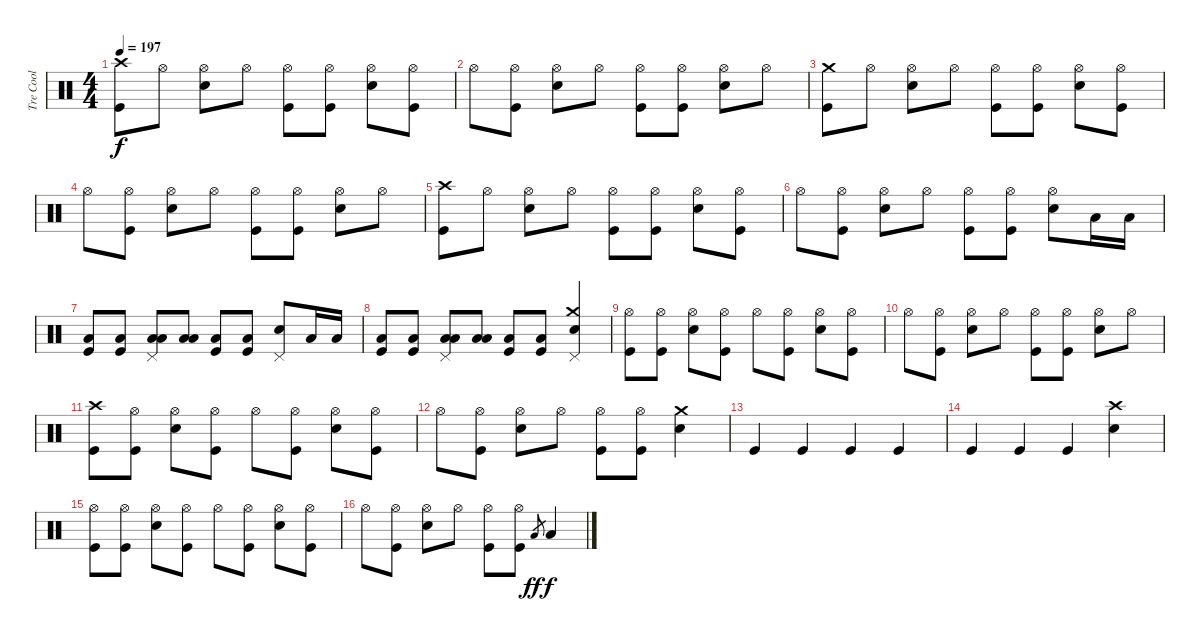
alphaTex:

\track ("Tre Cool" "Tre Cool") {instrument percussion}
\staff {score}
\articulation defaults
\ts (4 4)
\tempo 197
\clef neutral
\ks c
("Crash high (hit)" "Kick (hit)").8{dy f} "Hi-Hat (open)".8 ("Hi-Hat (open)" "Electric Snare (hit)").8 "Hi-Hat (open)".8 ("Hi-Hat (open)" "Kick (hit)").8 ("Hi-Hat (open)" "Kick (hit)").8 ("Hi-Hat (open)" "Electric Snare (hit)").8 ("Hi-Hat (open)" "Kick (hit)").8 |
"Hi-Hat (open)".8 ("Hi-Hat (open)" "Kick (hit)").8 ("Hi-Hat (open)" "Electric Snare (hit)").8 "Hi-Hat (open)".8 ("Hi-Hat (open)" "Kick (hit)").8 ("Hi-Hat (open)" "Kick (hit)").8 ("Hi-Hat (open)" "Electric Snare (hit)").8 "Hi-Hat (open)".8 |
("Crash medium (hit)" "Kick (hit)").8 "Hi-Hat (open)".8 ("Hi-Hat (open)" "Electric Snare (hit)").8 "Hi-Hat (open)".8 ("Hi-Hat (open)" "Kick (hit)").8 ("Hi-Hat (open)" "Kick (hit)").8 ("Hi-Hat (open)" "Electric Snare (hit)").8 ("Hi-Hat (open)" "Kick (hit)").8 |
"Hi-Hat (open)".8 ("Hi-Hat (open)" "Kick (hit)").8 ("Hi-Hat (open)" "Electric Snare (hit)").8 "Hi-Hat (open)".8 ("Hi-Hat (open)" "Kick (hit)").8 ("Hi-Hat (open)" "Kick (hit)").8 ("Hi-Hat (open)" "Electric Snare (hit)").8 "Hi-Hat (open)".8 |
("Crash high (hit)" "Kick (hit)").8 "Hi-Hat (open)".8 ("Hi-Hat (open)" "Electric Snare (hit)").8 "Hi-Hat (open)".8 ("Hi-Hat (open)" "Kick (hit)").8 ("Hi-Hat (open)" "Kick (hit)").8 ("Hi-Hat (open)" "Electric Snare (hit)").8 ("Hi-Hat (open)" "Kick (hit)").8 |
"Hi-Hat (open)".8 ("Hi-Hat (open)" "Kick (hit)").8 ("Hi-Hat (open)" "Electric Snare (hit)").8 "Hi-Hat (open)".8 ("Hi-Hat (open)" "Kick (hit)").8 ("Hi-Hat (open)" "Kick (hit)").8 ("Hi-Hat (open)" "Electric Snare (hit)").8 "Low Floor Tom (hit)".16 "Low Floor Tom (hit)".16 |
("Low Floor Tom (hit)" "Kick (hit)").8 ("Low Floor Tom (hit)" "Kick (hit)").8 ("Low Tom (hit)" "Low Floor Tom (hit)" "Pedal Hi-Hat (hit)").8 ("Low Tom (hit)" "Low Floor Tom (hit)").8 ("Low Floor Tom (hit)" "Kick (hit)").8 ("Low Floor Tom (hit)" "Kick (hit)").8 ("Electric Snare (hit)" "Pedal Hi-Hat (hit)").8 "Low Floor Tom (hit)".16 "Low Floor Tom (hit)".16 |
("Low Floor Tom (hit)" "Kick (hit)").8 ("Low Floor Tom (hit)" "Kick (hit)").8 ("Low Tom (hit)" "Low Floor Tom (hit)" "Pedal Hi-Hat (hit)").8 ("Low Tom (hit)" "Low Floor Tom (hit)").8 ("Low Floor Tom (hit)" "Kick (hit)").8 ("Low Floor Tom (hit)" "Kick (hit)").8 ("Crash medium (hit)" "Electric Snare (hit)" "Pedal Hi-Hat (hit)").4 |
("Hi-Hat (open)" "Kick (hit)").8 ("Hi-Hat (open)" "Kick (hit)").8 ("Hi-Hat (open)" "Electric Snare (hit)").8 ("Hi-Hat (open)" "Kick (hit)").8 "Hi-Hat (open)".8 ("Hi-Hat (open)" "Kick (hit)").8 ("Hi-Hat (open)" "Electric Snare (hit)").8 ("Hi-Hat (open)" "Kick (hit)").8 |
"Hi-Hat (open)".8 ("Hi-Hat (open)" "Kick (hit)").8 ("Hi-Hat (open)" "Electric Snare (hit)").8 "Hi-Hat (open)".8 ("Hi-Hat (open)" "Kick (hit)").8 ("Hi-Hat (open)" "Kick (hit)").8 ("Hi-Hat (open)" "Electric Snare (hit)").8 "Hi-Hat (open)".8 |
("Crash high (hit)" "Kick (hit)").8 ("Hi-Hat (open)" "Kick (hit)").8 ("Hi-Hat (open)" "Electric Snare (hit)").8 ("Hi-Hat (open)" "Kick (hit)").8 "Hi-Hat (open)".8 ("Hi-Hat (open)" "Kick (hit)").8 ("Hi-Hat (open)" "Electric Snare (hit)").8 ("Hi-Hat (open)" "Kick (hit)").8 |
"Hi-Hat (open)".8 ("Hi-Hat (open)" "Kick (hit)").8 ("Hi-Hat (open)" "Electric Snare (hit)").8 "Hi-Hat (open)".8 ("Hi-Hat (open)" "Kick (hit)").8 ("Hi-Hat (open)" "Kick (hit)").8 ("Crash medium (hit)" "Electric Snare (hit)").4 |
"Kick (hit)".4 "Kick (hit)".4 "Kick (hit)".4 "Kick (hit)".4 |
"Kick (hit)".4 "Kick (hit)".4 "Kick (hit)".4 ("Crash high (hit)" "Electric Snare (hit)").4 |
("Hi-Hat (open)" "Kick (hit)").8 ("Hi-Hat (open)" "Kick (hit)").8 ("Hi-Hat (open)" "Electric Snare (hit)").8 ("Hi-Hat (open)" "Kick (hit)").8 "Hi-Hat (open)".8 ("Hi-Hat (open)" "Kick (hit)").8 ("Hi-Hat (open)" "Electric Snare (hit)").8 ("Hi-Hat (open)" "Kick (hit)").8 |
"Hi-Hat (open)".8 ("Hi-Hat (open)" "Kick (hit)").8 ("Hi-Hat (open)" "Electric Snare (hit)").8 "Hi-Hat (open)".8 ("Hi-Hat (open)" "Kick (hit)").8 ("Hi-Hat (open)" "Kick (hit)").8 "Low Floor Tom (hit)".8{gr dy ff} "Low Floor Tom (hit)".4{dy f}
